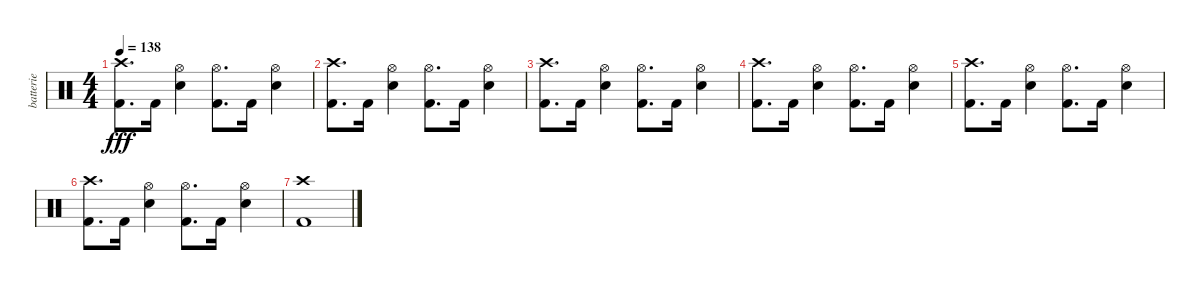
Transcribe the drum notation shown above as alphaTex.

\track ("batterie" "batterie") {instrument percussion}
\staff {score}
\articulation defaults
\ts (4 4)
\tempo 138
\clef neutral
\ks c
("Crash high (hit)" "Kick (hit) 2").8{d dy fff} "Kick (hit) 2".16 ("Hi-Hat (open)" "Electric Snare (hit)").4 ("Hi-Hat (open)" "Kick (hit) 2").8{d} "Kick (hit) 2".16 ("Hi-Hat (open)" "Electric Snare (hit)").4 |
("Crash high (hit)" "Kick (hit) 2").8{d} "Kick (hit) 2".16 ("Hi-Hat (open)" "Electric Snare (hit)").4 ("Hi-Hat (open)" "Kick (hit) 2").8{d} "Kick (hit) 2".16 ("Hi-Hat (open)" "Electric Snare (hit)").4 |
("Crash high (hit)" "Kick (hit) 2").8{d} "Kick (hit) 2".16 ("Hi-Hat (open)" "Electric Snare (hit)").4 ("Hi-Hat (open)" "Kick (hit) 2").8{d} "Kick (hit) 2".16 ("Hi-Hat (open)" "Electric Snare (hit)").4 |
("Crash high (hit)" "Kick (hit) 2").8{d} "Kick (hit) 2".16 ("Hi-Hat (open)" "Electric Snare (hit)").4 ("Hi-Hat (open)" "Kick (hit) 2").8{d} "Kick (hit) 2".16 ("Hi-Hat (open)" "Electric Snare (hit)").4 |
("Crash high (hit)" "Kick (hit) 2").8{d} "Kick (hit) 2".16 ("Hi-Hat (open)" "Electric Snare (hit)").4 ("Hi-Hat (open)" "Kick (hit) 2").8{d} "Kick (hit) 2".16 ("Hi-Hat (open)" "Electric Snare (hit)").4 |
("Crash high (hit)" "Kick (hit) 2").8{d} "Kick (hit) 2".16 ("Hi-Hat (open)" "Electric Snare (hit)").4 ("Hi-Hat (open)" "Kick (hit) 2").8{d} "Kick (hit) 2".16 ("Hi-Hat (open)" "Electric Snare (hit)").4 |
("Crash high (hit)" "Kick (hit) 2").1
